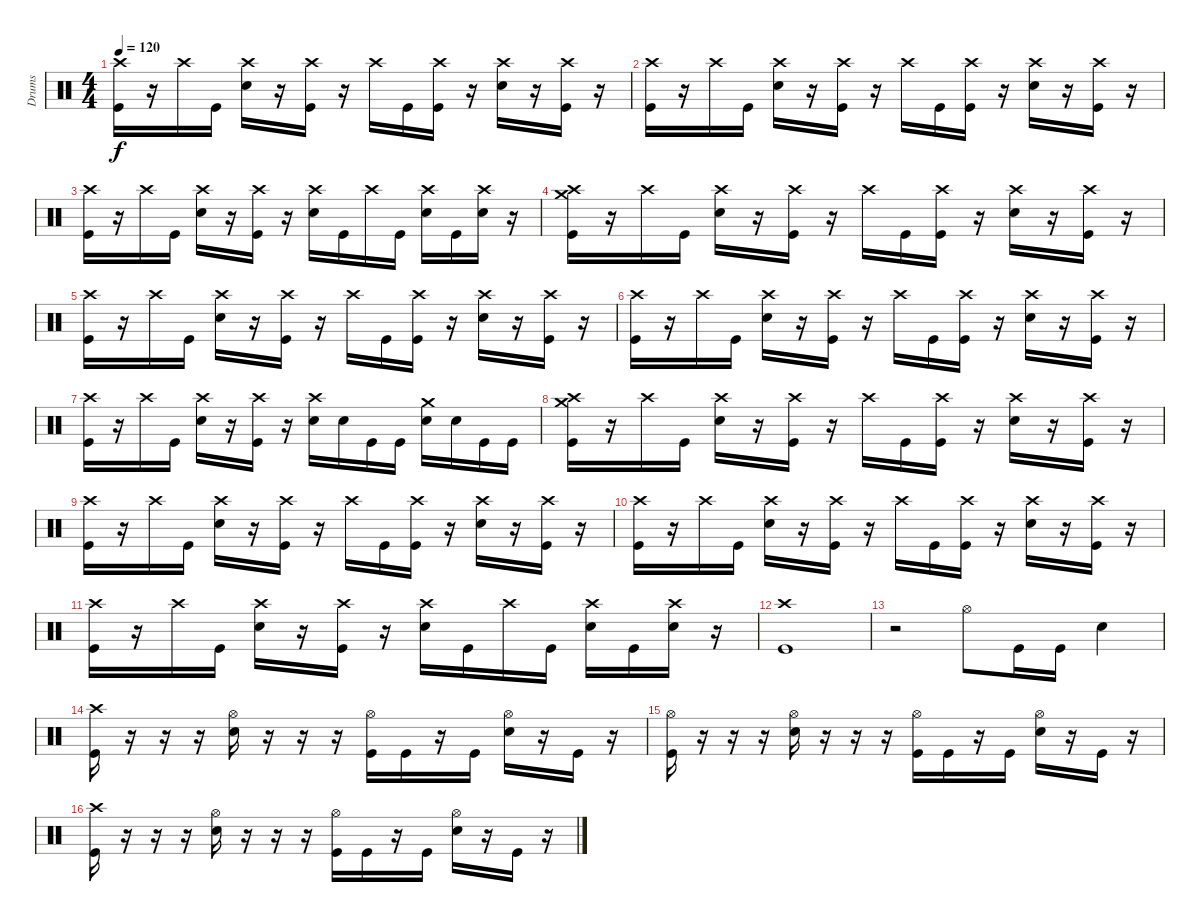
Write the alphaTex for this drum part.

\track ("Drums" "Drums") {instrument percussion}
\staff {score}
\articulation defaults
\ts (4 4)
\tempo 120
\clef neutral
\ks c
("Crash high (hit)" "Kick (hit)").16{dy f} r.16 "Crash high (hit)".16 "Kick (hit)".16 ("Crash high (hit)" "Snare (hit) 2").16 r.16 ("Crash high (hit)" "Kick (hit)").16 r.16 "Crash high (hit)".16 "Kick (hit)".16 ("Crash high (hit)" "Kick (hit)").16 r.16 ("Crash high (hit)" "Snare (hit) 2").16 r.16 ("Crash high (hit)" "Kick (hit)").16 r.16 |
("Crash high (hit)" "Kick (hit)").16 r.16 "Crash high (hit)".16 "Kick (hit)".16 ("Crash high (hit)" "Snare (hit) 2").16 r.16 ("Crash high (hit)" "Kick (hit)").16 r.16 "Crash high (hit)".16 "Kick (hit)".16 ("Crash high (hit)" "Kick (hit)").16 r.16 ("Crash high (hit)" "Snare (hit) 2").16 r.16 ("Crash high (hit)" "Kick (hit)").16 r.16 |
("Crash high (hit)" "Kick (hit)").16 r.16 "Crash high (hit)".16 "Kick (hit)".16 ("Crash high (hit)" "Snare (hit) 2").16 r.16 ("Crash high (hit)" "Kick (hit)").16 r.16 ("Crash high (hit)" "Snare (hit) 2").16 "Kick (hit)".16 "Crash high (hit)".16 "Kick (hit)".16 ("Crash high (hit)" "Snare (hit) 2").16 "Kick (hit)".16 ("Crash high (hit)" "Snare (hit) 2").16 r.16 |
("Crash medium (hit)" "Crash high (hit)" "Kick (hit)").16 r.16 "Crash high (hit)".16 "Kick (hit)".16 ("Crash high (hit)" "Snare (hit) 2").16 r.16 ("Crash high (hit)" "Kick (hit)").16 r.16 "Crash high (hit)".16 "Kick (hit)".16 ("Crash high (hit)" "Kick (hit)").16 r.16 ("Crash high (hit)" "Snare (hit) 2").16 r.16 ("Crash high (hit)" "Kick (hit)").16 r.16 |
("Crash high (hit)" "Kick (hit)").16 r.16 "Crash high (hit)".16 "Kick (hit)".16 ("Crash high (hit)" "Snare (hit) 2").16 r.16 ("Crash high (hit)" "Kick (hit)").16 r.16 "Crash high (hit)".16 "Kick (hit)".16 ("Crash high (hit)" "Kick (hit)").16 r.16 ("Crash high (hit)" "Snare (hit) 2").16 r.16 ("Crash high (hit)" "Kick (hit)").16 r.16 |
("Crash high (hit)" "Kick (hit)").16 r.16 "Crash high (hit)".16 "Kick (hit)".16 ("Crash high (hit)" "Snare (hit) 2").16 r.16 ("Crash high (hit)" "Kick (hit)").16 r.16 "Crash high (hit)".16 "Kick (hit)".16 ("Crash high (hit)" "Kick (hit)").16 r.16 ("Crash high (hit)" "Snare (hit) 2").16 r.16 ("Crash high (hit)" "Kick (hit)").16 r.16 |
("Crash high (hit)" "Kick (hit)").16 r.16 "Crash high (hit)".16 "Kick (hit)".16 ("Crash high (hit)" "Snare (hit) 2").16 r.16 ("Crash high (hit)" "Kick (hit)").16 r.16 ("Crash high (hit)" "Snare (hit) 2").16 "Snare (hit) 2".16 "Kick (hit)".16 "Kick (hit)".16 ("Crash medium (hit)" "Snare (hit) 2").16 "Snare (hit) 2".16 "Kick (hit)".16 "Kick (hit)".16 |
("Crash medium (hit)" "Crash high (hit)" "Kick (hit)").16 r.16 "Crash high (hit)".16 "Kick (hit)".16 ("Crash high (hit)" "Snare (hit) 2").16 r.16 ("Crash high (hit)" "Kick (hit)").16 r.16 "Crash high (hit)".16 "Kick (hit)".16 ("Crash high (hit)" "Kick (hit)").16 r.16 ("Crash high (hit)" "Snare (hit) 2").16 r.16 ("Crash high (hit)" "Kick (hit)").16 r.16 |
("Crash high (hit)" "Kick (hit)").16 r.16 "Crash high (hit)".16 "Kick (hit)".16 ("Crash high (hit)" "Snare (hit) 2").16 r.16 ("Crash high (hit)" "Kick (hit)").16 r.16 "Crash high (hit)".16 "Kick (hit)".16 ("Crash high (hit)" "Kick (hit)").16 r.16 ("Crash high (hit)" "Snare (hit) 2").16 r.16 ("Crash high (hit)" "Kick (hit)").16 r.16 |
("Crash high (hit)" "Kick (hit)").16 r.16 "Crash high (hit)".16 "Kick (hit)".16 ("Crash high (hit)" "Snare (hit) 2").16 r.16 ("Crash high (hit)" "Kick (hit)").16 r.16 "Crash high (hit)".16 "Kick (hit)".16 ("Crash high (hit)" "Kick (hit)").16 r.16 ("Crash high (hit)" "Snare (hit) 2").16 r.16 ("Crash high (hit)" "Kick (hit)").16 r.16 |
("Crash high (hit)" "Kick (hit)").16 r.16 "Crash high (hit)".16 "Kick (hit)".16 ("Crash high (hit)" "Snare (hit) 2").16 r.16 ("Crash high (hit)" "Kick (hit)").16 r.16 ("Crash high (hit)" "Snare (hit) 2").16 "Kick (hit)".16 "Crash high (hit)".16 "Kick (hit)".16 ("Crash high (hit)" "Snare (hit) 2").16 "Kick (hit)".16 ("Crash high (hit)" "Snare (hit) 2").16 r.16 |
("Crash high (hit)" "Kick (hit)").1 |
r.2 "Hi-Hat (open)".8 "Kick (hit)".16 "Kick (hit)".16 "Snare (hit) 2".4 |
("Crash high (hit)" "Kick (hit)").16 r.16 r.16 r.16 ("Hi-Hat (open)" "Snare (hit) 2").16 r.16 r.16 r.16 ("Hi-Hat (open)" "Kick (hit)").16 "Kick (hit)".16 r.16 "Kick (hit)".16 ("Hi-Hat (open)" "Snare (hit) 2").16 r.16 "Kick (hit)".16 r.16 |
("Hi-Hat (open)" "Kick (hit)").16 r.16 r.16 r.16 ("Hi-Hat (open)" "Snare (hit) 2").16 r.16 r.16 r.16 ("Hi-Hat (open)" "Kick (hit)").16 "Kick (hit)".16 r.16 "Kick (hit)".16 ("Hi-Hat (open)" "Snare (hit) 2").16 r.16 "Kick (hit)".16 r.16 |
("Crash high (hit)" "Kick (hit)").16 r.16 r.16 r.16 ("Hi-Hat (open)" "Snare (hit) 2").16 r.16 r.16 r.16 ("Hi-Hat (open)" "Kick (hit)").16 "Kick (hit)".16 r.16 "Kick (hit)".16 ("Hi-Hat (open)" "Snare (hit) 2").16 r.16 "Kick (hit)".16 r.16
